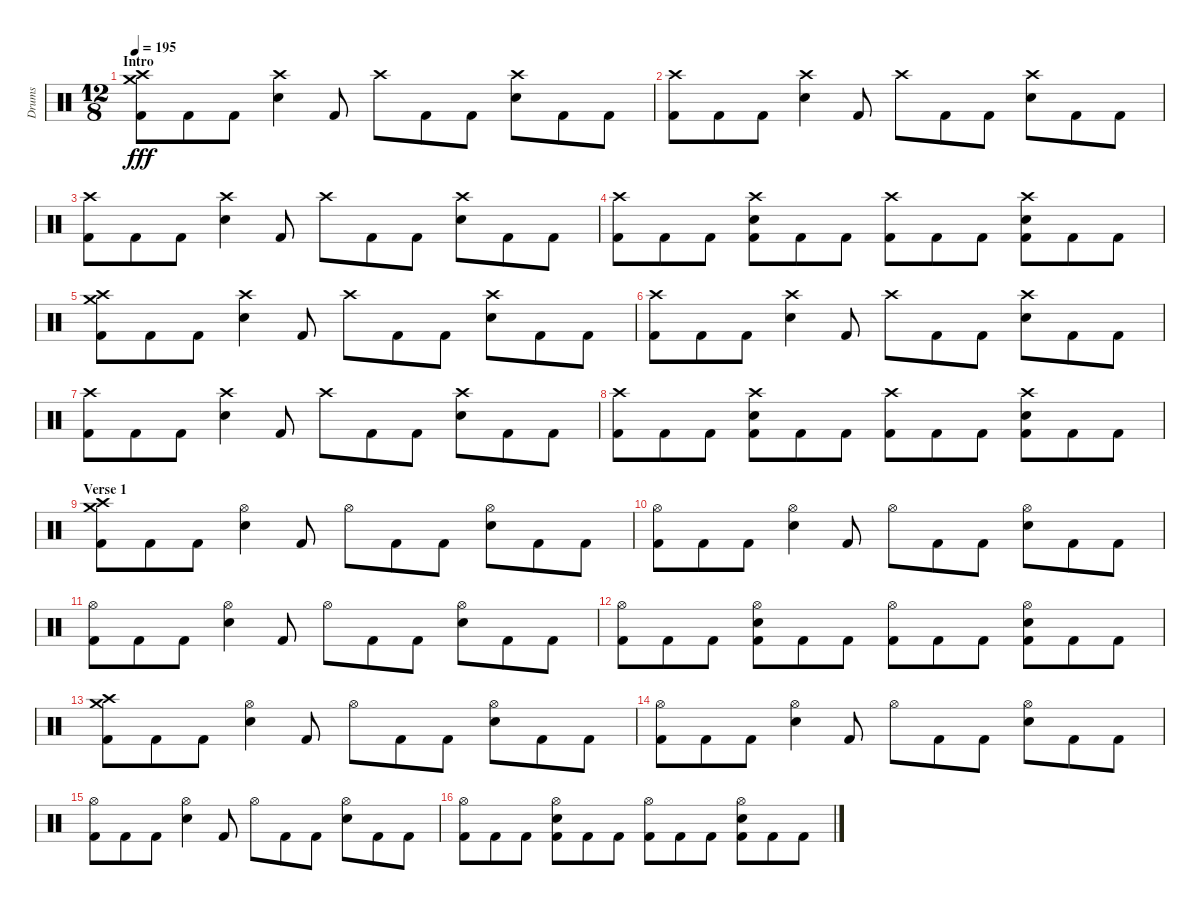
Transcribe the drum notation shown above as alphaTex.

\track ("Drums" "Drums") {instrument percussion}
\staff {score}
\articulation defaults
\ts (12 8)
\section ("" "Intro")
\tempo 195
\clef neutral
\ks c
("Crash high (hit)" "Crash medium (hit)" "Kick (hit) 2").8{dy fff} "Kick (hit) 2".8 "Kick (hit) 2".8 ("Crash high (hit)" "Electric Snare (hit)").4 "Kick (hit) 2".8 "Crash high (hit)".8 "Kick (hit) 2".8 "Kick (hit) 2".8 ("Crash high (hit)" "Electric Snare (hit)").8 "Kick (hit) 2".8 "Kick (hit) 2".8 |
("Crash high (hit)" "Kick (hit) 2").8 "Kick (hit) 2".8 "Kick (hit) 2".8 ("Crash high (hit)" "Electric Snare (hit)").4 "Kick (hit) 2".8 "Crash high (hit)".8 "Kick (hit) 2".8 "Kick (hit) 2".8 ("Crash high (hit)" "Electric Snare (hit)").8 "Kick (hit) 2".8 "Kick (hit) 2".8 |
("Crash high (hit)" "Kick (hit) 2").8 "Kick (hit) 2".8 "Kick (hit) 2".8 ("Crash high (hit)" "Electric Snare (hit)").4 "Kick (hit) 2".8 "Crash high (hit)".8 "Kick (hit) 2".8 "Kick (hit) 2".8 ("Crash high (hit)" "Electric Snare (hit)").8 "Kick (hit) 2".8 "Kick (hit) 2".8 |
("Crash high (hit)" "Kick (hit) 2").8 "Kick (hit) 2".8 "Kick (hit) 2".8 ("Crash high (hit)" "Electric Snare (hit)" "Kick (hit) 2").8 "Kick (hit) 2".8 "Kick (hit) 2".8 ("Crash high (hit)" "Kick (hit) 2").8 "Kick (hit) 2".8 "Kick (hit) 2".8 ("Crash high (hit)" "Electric Snare (hit)" "Kick (hit) 2").8 "Kick (hit) 2".8 "Kick (hit) 2".8 |
("Crash high (hit)" "Crash medium (hit)" "Kick (hit) 2").8 "Kick (hit) 2".8 "Kick (hit) 2".8 ("Crash high (hit)" "Electric Snare (hit)").4 "Kick (hit) 2".8 "Crash high (hit)".8 "Kick (hit) 2".8 "Kick (hit) 2".8 ("Crash high (hit)" "Electric Snare (hit)").8 "Kick (hit) 2".8 "Kick (hit) 2".8 |
("Crash high (hit)" "Kick (hit) 2").8 "Kick (hit) 2".8 "Kick (hit) 2".8 ("Crash high (hit)" "Electric Snare (hit)").4 "Kick (hit) 2".8 "Crash high (hit)".8 "Kick (hit) 2".8 "Kick (hit) 2".8 ("Crash high (hit)" "Electric Snare (hit)").8 "Kick (hit) 2".8 "Kick (hit) 2".8 |
("Crash high (hit)" "Kick (hit) 2").8 "Kick (hit) 2".8 "Kick (hit) 2".8 ("Crash high (hit)" "Electric Snare (hit)").4 "Kick (hit) 2".8 "Crash high (hit)".8 "Kick (hit) 2".8 "Kick (hit) 2".8 ("Crash high (hit)" "Electric Snare (hit)").8 "Kick (hit) 2".8 "Kick (hit) 2".8 |
("Crash high (hit)" "Kick (hit) 2").8 "Kick (hit) 2".8 "Kick (hit) 2".8 ("Crash high (hit)" "Electric Snare (hit)" "Kick (hit) 2").8 "Kick (hit) 2".8 "Kick (hit) 2".8 ("Crash high (hit)" "Kick (hit) 2").8 "Kick (hit) 2".8 "Kick (hit) 2".8 ("Crash high (hit)" "Electric Snare (hit)" "Kick (hit) 2").8 "Kick (hit) 2".8 "Kick (hit) 2".8 |
\section ("" "Verse 1")
("Crash high (hit)" "Crash medium (hit)" "Kick (hit) 2").8 "Kick (hit) 2".8 "Kick (hit) 2".8 ("Hi-Hat (open)" "Electric Snare (hit)").4 "Kick (hit) 2".8 "Hi-Hat (open)".8 "Kick (hit) 2".8 "Kick (hit) 2".8 ("Hi-Hat (open)" "Electric Snare (hit)").8 "Kick (hit) 2".8 "Kick (hit) 2".8 |
("Hi-Hat (open)" "Kick (hit) 2").8 "Kick (hit) 2".8 "Kick (hit) 2".8 ("Hi-Hat (open)" "Electric Snare (hit)").4 "Kick (hit) 2".8 "Hi-Hat (open)".8 "Kick (hit) 2".8 "Kick (hit) 2".8 ("Hi-Hat (open)" "Electric Snare (hit)").8 "Kick (hit) 2".8 "Kick (hit) 2".8 |
("Hi-Hat (open)" "Kick (hit) 2").8 "Kick (hit) 2".8 "Kick (hit) 2".8 ("Hi-Hat (open)" "Electric Snare (hit)").4 "Kick (hit) 2".8 "Hi-Hat (open)".8 "Kick (hit) 2".8 "Kick (hit) 2".8 ("Hi-Hat (open)" "Electric Snare (hit)").8 "Kick (hit) 2".8 "Kick (hit) 2".8 |
("Hi-Hat (open)" "Kick (hit) 2").8 "Kick (hit) 2".8 "Kick (hit) 2".8 ("Hi-Hat (open)" "Electric Snare (hit)" "Kick (hit) 2").8 "Kick (hit) 2".8 "Kick (hit) 2".8 ("Hi-Hat (open)" "Kick (hit) 2").8 "Kick (hit) 2".8 "Kick (hit) 2".8 ("Hi-Hat (open)" "Electric Snare (hit)" "Kick (hit) 2").8 "Kick (hit) 2".8 "Kick (hit) 2".8 |
("Crash high (hit)" "Crash medium (hit)" "Kick (hit) 2").8 "Kick (hit) 2".8 "Kick (hit) 2".8 ("Hi-Hat (open)" "Electric Snare (hit)").4 "Kick (hit) 2".8 "Hi-Hat (open)".8 "Kick (hit) 2".8 "Kick (hit) 2".8 ("Hi-Hat (open)" "Electric Snare (hit)").8 "Kick (hit) 2".8 "Kick (hit) 2".8 |
("Hi-Hat (open)" "Kick (hit) 2").8 "Kick (hit) 2".8 "Kick (hit) 2".8 ("Hi-Hat (open)" "Electric Snare (hit)").4 "Kick (hit) 2".8 "Hi-Hat (open)".8 "Kick (hit) 2".8 "Kick (hit) 2".8 ("Hi-Hat (open)" "Electric Snare (hit)").8 "Kick (hit) 2".8 "Kick (hit) 2".8 |
("Hi-Hat (open)" "Kick (hit) 2").8 "Kick (hit) 2".8 "Kick (hit) 2".8 ("Hi-Hat (open)" "Electric Snare (hit)").4 "Kick (hit) 2".8 "Hi-Hat (open)".8 "Kick (hit) 2".8 "Kick (hit) 2".8 ("Hi-Hat (open)" "Electric Snare (hit)").8 "Kick (hit) 2".8 "Kick (hit) 2".8 |
("Hi-Hat (open)" "Kick (hit) 2").8 "Kick (hit) 2".8 "Kick (hit) 2".8 ("Hi-Hat (open)" "Electric Snare (hit)" "Kick (hit) 2").8 "Kick (hit) 2".8 "Kick (hit) 2".8 ("Hi-Hat (open)" "Kick (hit) 2").8 "Kick (hit) 2".8 "Kick (hit) 2".8 ("Hi-Hat (open)" "Electric Snare (hit)" "Kick (hit) 2").8 "Kick (hit) 2".8 "Kick (hit) 2".8
